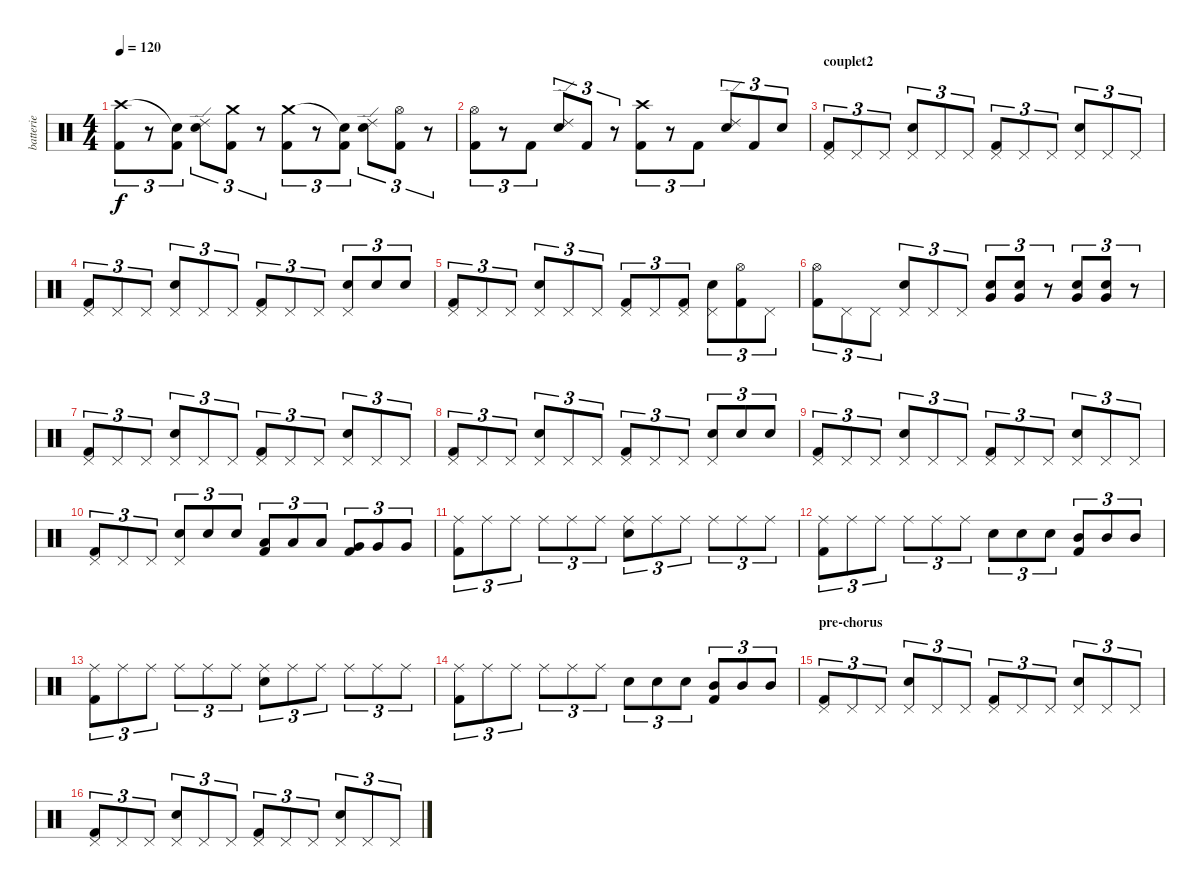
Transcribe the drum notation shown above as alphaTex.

\track ("batterie" "batterie") {instrument percussion}
\staff {score}
\articulation defaults
\ts (4 4)
\tempo 120
\clef neutral
\ks c
("Crash high (hit)" "Kick (hit) 2").8{tu (3 2) dy f} r.8{tu (3 2)} ("Snare (hit)"{t} "Kick (hit) 2").8{tu (3 2)} ("Snare (hit) 2" "Ride (edge) 2").8{tu (3 2)} ("Crash medium (hit)" "Kick (hit) 2").8{tu (3 2)} r.8{tu (3 2)} ("Crash medium (hit)" "Kick (hit) 2").8{tu (3 2)} r.8{tu (3 2)} ("Snare (hit)"{t} "Kick (hit) 2").8{tu (3 2)} ("Snare (hit) 2" "Ride (edge) 2").8{tu (3 2)} ("Kick (hit) 2" "Hi-Hat (open)").8{tu (3 2)} r.8{tu (3 2)} |
("Kick (hit) 2" "Hi-Hat (open)").8{tu (3 2)} r.8{tu (3 2)} "Kick (hit) 2".8{tu (3 2)} ("Snare (hit) 2" "Ride (edge) 2").8{tu (3 2)} "Kick (hit) 2".8{tu (3 2)} r.8{tu (3 2)} ("Kick (hit) 2" "Crash high (hit)").8{tu (3 2)} r.8{tu (3 2)} "Kick (hit) 2".8{tu (3 2)} ("Snare (hit) 2" "Ride (edge) 2").8{tu (3 2)} "Kick (hit) 2".8{tu (3 2)} "Snare (hit) 2".8{tu (3 2)} |
\section ("" "couplet2")
("Kick (hit) 2" "Pedal Hi-Hat (hit)").8{tu (3 2)} "Pedal Hi-Hat (hit)".8{tu (3 2)} "Pedal Hi-Hat (hit)".8{tu (3 2)} ("Snare (hit) 2" "Pedal Hi-Hat (hit)").8{tu (3 2)} "Pedal Hi-Hat (hit)".8{tu (3 2)} "Pedal Hi-Hat (hit)".8{tu (3 2)} ("Kick (hit) 2" "Pedal Hi-Hat (hit)").8{tu (3 2)} "Pedal Hi-Hat (hit)".8{tu (3 2)} "Pedal Hi-Hat (hit)".8{tu (3 2)} ("Snare (hit) 2" "Pedal Hi-Hat (hit)").8{tu (3 2)} "Pedal Hi-Hat (hit)".8{tu (3 2)} "Pedal Hi-Hat (hit)".8{tu (3 2)} |
("Kick (hit) 2" "Pedal Hi-Hat (hit)").8{tu (3 2)} "Pedal Hi-Hat (hit)".8{tu (3 2)} "Pedal Hi-Hat (hit)".8{tu (3 2)} ("Snare (hit) 2" "Pedal Hi-Hat (hit)").8{tu (3 2)} "Pedal Hi-Hat (hit)".8{tu (3 2)} "Pedal Hi-Hat (hit)".8{tu (3 2)} ("Kick (hit) 2" "Pedal Hi-Hat (hit)").8{tu (3 2)} "Pedal Hi-Hat (hit)".8{tu (3 2)} "Pedal Hi-Hat (hit)".8{tu (3 2)} ("Snare (hit) 2" "Pedal Hi-Hat (hit)").8{tu (3 2)} "Snare (hit) 2".8{tu (3 2)} "Snare (hit) 2".8{tu (3 2)} |
("Kick (hit) 2" "Pedal Hi-Hat (hit)").8{tu (3 2)} "Pedal Hi-Hat (hit)".8{tu (3 2)} "Pedal Hi-Hat (hit)".8{tu (3 2)} ("Snare (hit) 2" "Pedal Hi-Hat (hit)").8{tu (3 2)} "Pedal Hi-Hat (hit)".8{tu (3 2)} "Pedal Hi-Hat (hit)".8{tu (3 2)} ("Kick (hit) 2" "Pedal Hi-Hat (hit)").8{tu (3 2)} "Pedal Hi-Hat (hit)".8{tu (3 2)} ("Kick (hit) 2" "Pedal Hi-Hat (hit)").8{tu (3 2)} ("Snare (hit) 2" "Pedal Hi-Hat (hit)").8{tu (3 2)} ("Kick (hit) 2" "Hi-Hat (open)").8{tu (3 2)} "Pedal Hi-Hat (hit)".8{tu (3 2)} |
("Kick (hit) 2" "Hi-Hat (open)").8{tu (3 2)} "Pedal Hi-Hat (hit)".8{tu (3 2)} "Pedal Hi-Hat (hit)".8{tu (3 2)} ("Snare (hit) 2" "Pedal Hi-Hat (hit)").8{tu (3 2)} "Pedal Hi-Hat (hit)".8{tu (3 2)} "Pedal Hi-Hat (hit)".8{tu (3 2)} ("Very Low Tom (hit)" "Snare (hit) 2").8{tu (3 2)} ("Very Low Tom (hit)" "Snare (hit) 2").8{tu (3 2)} r.8{tu (3 2)} ("Very Low Tom (hit)" "Snare (hit) 2").8{tu (3 2)} ("Very Low Tom (hit)" "Snare (hit) 2").8{tu (3 2)} r.8{tu (3 2)} |
("Kick (hit) 2" "Pedal Hi-Hat (hit)").8{tu (3 2)} "Pedal Hi-Hat (hit)".8{tu (3 2)} "Pedal Hi-Hat (hit)".8{tu (3 2)} ("Snare (hit) 2" "Pedal Hi-Hat (hit)").8{tu (3 2)} "Pedal Hi-Hat (hit)".8{tu (3 2)} "Pedal Hi-Hat (hit)".8{tu (3 2)} ("Kick (hit) 2" "Pedal Hi-Hat (hit)").8{tu (3 2)} "Pedal Hi-Hat (hit)".8{tu (3 2)} "Pedal Hi-Hat (hit)".8{tu (3 2)} ("Snare (hit) 2" "Pedal Hi-Hat (hit)").8{tu (3 2)} "Pedal Hi-Hat (hit)".8{tu (3 2)} "Pedal Hi-Hat (hit)".8{tu (3 2)} |
("Kick (hit) 2" "Pedal Hi-Hat (hit)").8{tu (3 2)} "Pedal Hi-Hat (hit)".8{tu (3 2)} "Pedal Hi-Hat (hit)".8{tu (3 2)} ("Snare (hit) 2" "Pedal Hi-Hat (hit)").8{tu (3 2)} "Pedal Hi-Hat (hit)".8{tu (3 2)} "Pedal Hi-Hat (hit)".8{tu (3 2)} ("Kick (hit) 2" "Pedal Hi-Hat (hit)").8{tu (3 2)} "Pedal Hi-Hat (hit)".8{tu (3 2)} "Pedal Hi-Hat (hit)".8{tu (3 2)} ("Snare (hit) 2" "Pedal Hi-Hat (hit)").8{tu (3 2)} "Snare (hit) 2".8{tu (3 2)} "Snare (hit) 2".8{tu (3 2)} |
("Kick (hit) 2" "Pedal Hi-Hat (hit)").8{tu (3 2)} "Pedal Hi-Hat (hit)".8{tu (3 2)} "Pedal Hi-Hat (hit)".8{tu (3 2)} ("Snare (hit) 2" "Pedal Hi-Hat (hit)").8{tu (3 2)} "Pedal Hi-Hat (hit)".8{tu (3 2)} "Pedal Hi-Hat (hit)".8{tu (3 2)} ("Kick (hit) 2" "Pedal Hi-Hat (hit)").8{tu (3 2)} "Pedal Hi-Hat (hit)".8{tu (3 2)} "Pedal Hi-Hat (hit)".8{tu (3 2)} ("Snare (hit) 2" "Pedal Hi-Hat (hit)").8{tu (3 2)} "Pedal Hi-Hat (hit)".8{tu (3 2)} "Pedal Hi-Hat (hit)".8{tu (3 2)} |
("Kick (hit) 2" "Pedal Hi-Hat (hit)").8{tu (3 2)} "Pedal Hi-Hat (hit)".8{tu (3 2)} "Pedal Hi-Hat (hit)".8{tu (3 2)} ("Snare (hit) 2" "Pedal Hi-Hat (hit)").8{tu (3 2)} "Snare (hit) 2".8{tu (3 2)} "Snare (hit) 2".8{tu (3 2)} ("Low Tom (hit)" "Kick (hit) 2").8{tu (3 2)} "Low Tom (hit)".8{tu (3 2)} "Low Tom (hit)".8{tu (3 2)} ("Very Low Tom (hit)" "Kick (hit) 2").8{tu (3 2)} "Very Low Tom (hit)".8{tu (3 2)} "Very Low Tom (hit)".8{tu (3 2)} |
("Kick (hit) 2" "Ride (middle)").8{tu (3 2)} "Ride (middle)".8{tu (3 2)} "Ride (middle)".8{tu (3 2)} "Ride (middle)".8{tu (3 2)} "Ride (middle)".8{tu (3 2)} "Ride (middle)".8{tu (3 2)} ("Snare (hit) 2" "Ride (middle)").8{tu (3 2)} "Ride (middle)".8{tu (3 2)} "Ride (middle)".8{tu (3 2)} "Ride (middle)".8{tu (3 2)} "Ride (middle)".8{tu (3 2)} "Ride (middle)".8{tu (3 2)} |
("Kick (hit) 2" "Ride (middle)").8{tu (3 2)} "Ride (middle)".8{tu (3 2)} "Ride (middle)".8{tu (3 2)} "Ride (middle)".8{tu (3 2)} "Ride (middle)".8{tu (3 2)} "Ride (middle)".8{tu (3 2)} "Snare (hit) 2".8{tu (3 2)} "Snare (hit) 2".8{tu (3 2)} "Snare (hit) 2".8{tu (3 2)} ("Mid Tom (hit)" "Kick (hit) 2").8{tu (3 2)} "Mid Tom (hit)".8{tu (3 2)} "Mid Tom (hit)".8{tu (3 2)} |
("Kick (hit) 2" "Ride (middle)").8{tu (3 2)} "Ride (middle)".8{tu (3 2)} "Ride (middle)".8{tu (3 2)} "Ride (middle)".8{tu (3 2)} "Ride (middle)".8{tu (3 2)} "Ride (middle)".8{tu (3 2)} ("Snare (hit) 2" "Ride (middle)").8{tu (3 2)} "Ride (middle)".8{tu (3 2)} "Ride (middle)".8{tu (3 2)} "Ride (middle)".8{tu (3 2)} "Ride (middle)".8{tu (3 2)} "Ride (middle)".8{tu (3 2)} |
("Kick (hit) 2" "Ride (middle)").8{tu (3 2)} "Ride (middle)".8{tu (3 2)} "Ride (middle)".8{tu (3 2)} "Ride (middle)".8{tu (3 2)} "Ride (middle)".8{tu (3 2)} "Ride (middle)".8{tu (3 2)} "Snare (hit) 2".8{tu (3 2)} "Snare (hit) 2".8{tu (3 2)} "Snare (hit) 2".8{tu (3 2)} ("Mid Tom (hit)" "Kick (hit) 2").8{tu (3 2)} "Mid Tom (hit)".8{tu (3 2)} "Mid Tom (hit)".8{tu (3 2)} |
\section ("" "pre-chorus")
("Kick (hit) 2" "Pedal Hi-Hat (hit)").8{tu (3 2)} "Pedal Hi-Hat (hit)".8{tu (3 2)} "Pedal Hi-Hat (hit)".8{tu (3 2)} ("Snare (hit) 2" "Pedal Hi-Hat (hit)").8{tu (3 2)} "Pedal Hi-Hat (hit)".8{tu (3 2)} "Pedal Hi-Hat (hit)".8{tu (3 2)} ("Kick (hit) 2" "Pedal Hi-Hat (hit)").8{tu (3 2)} "Pedal Hi-Hat (hit)".8{tu (3 2)} "Pedal Hi-Hat (hit)".8{tu (3 2)} ("Snare (hit) 2" "Pedal Hi-Hat (hit)").8{tu (3 2)} "Pedal Hi-Hat (hit)".8{tu (3 2)} "Pedal Hi-Hat (hit)".8{tu (3 2)} |
("Kick (hit) 2" "Pedal Hi-Hat (hit)").8{tu (3 2)} "Pedal Hi-Hat (hit)".8{tu (3 2)} "Pedal Hi-Hat (hit)".8{tu (3 2)} ("Snare (hit) 2" "Pedal Hi-Hat (hit)").8{tu (3 2)} "Pedal Hi-Hat (hit)".8{tu (3 2)} "Pedal Hi-Hat (hit)".8{tu (3 2)} ("Kick (hit) 2" "Pedal Hi-Hat (hit)").8{tu (3 2)} "Pedal Hi-Hat (hit)".8{tu (3 2)} "Pedal Hi-Hat (hit)".8{tu (3 2)} ("Snare (hit) 2" "Pedal Hi-Hat (hit)").8{tu (3 2)} "Pedal Hi-Hat (hit)".8{tu (3 2)} "Pedal Hi-Hat (hit)".8{tu (3 2)}
